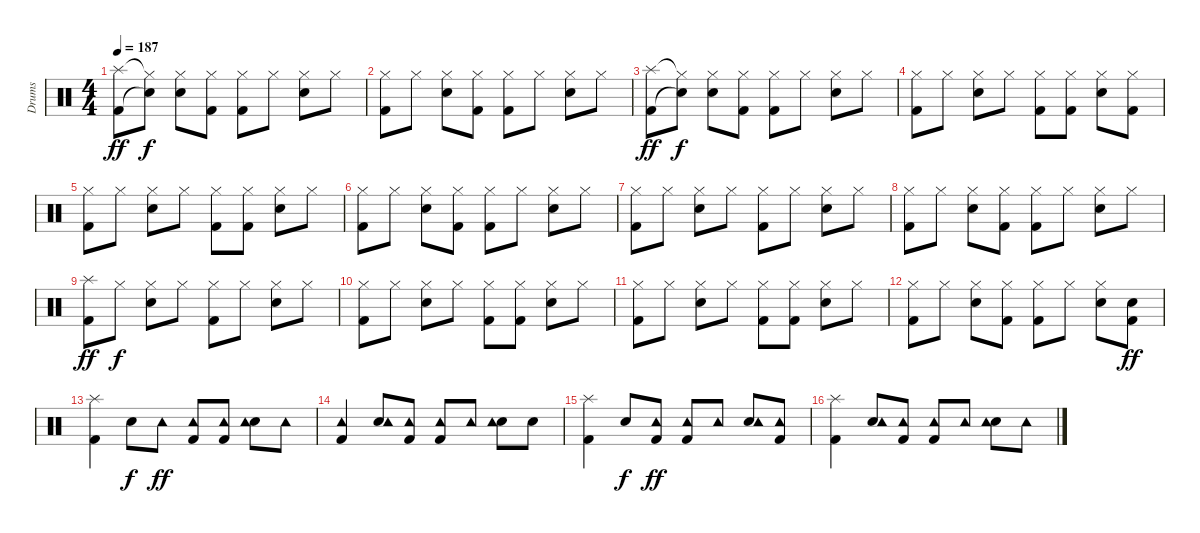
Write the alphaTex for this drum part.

\track ("Drums" "Drums") {instrument percussion}
\staff {score}
\articulation defaults
\ts (4 4)
\tempo 187
\clef neutral
\ks c
("Kick (hit) 2" "Splash (hit)").8{dy ff} ("Snare (hit)"{t} "Hi-Hat (closed)"{t}).8{dy f} ("Snare (hit) 2" "Hi-Hat (closed)").8 ("Kick (hit) 2" "Hi-Hat (closed)").8 ("Kick (hit) 2" "Hi-Hat (closed)").8 "Hi-Hat (closed)".8 ("Snare (hit) 2" "Hi-Hat (closed)").8 "Hi-Hat (closed)".8 |
("Kick (hit) 2" "Hi-Hat (closed)").8 "Hi-Hat (closed)".8 ("Snare (hit) 2" "Hi-Hat (closed)").8 ("Kick (hit) 2" "Hi-Hat (closed)").8 ("Kick (hit) 2" "Hi-Hat (closed)").8 "Hi-Hat (closed)".8 ("Snare (hit) 2" "Hi-Hat (closed)").8 "Hi-Hat (closed)".8 |
("Kick (hit) 2" "Splash (hit)").8{dy ff} ("Snare (hit)"{t} "Hi-Hat (closed)"{t}).8{dy f} ("Snare (hit) 2" "Hi-Hat (closed)").8 ("Kick (hit) 2" "Hi-Hat (closed)").8 ("Kick (hit) 2" "Hi-Hat (closed)").8 "Hi-Hat (closed)".8 ("Snare (hit) 2" "Hi-Hat (closed)").8 "Hi-Hat (closed)".8 |
("Kick (hit) 2" "Hi-Hat (closed)").8 "Hi-Hat (closed)".8 ("Snare (hit) 2" "Hi-Hat (closed)").8 "Hi-Hat (closed)".8 ("Kick (hit) 2" "Hi-Hat (closed)").8 ("Kick (hit) 2" "Hi-Hat (closed)").8 ("Snare (hit) 2" "Hi-Hat (closed)").8 ("Kick (hit) 2" "Hi-Hat (closed)").8 |
("Kick (hit) 2" "Hi-Hat (closed)").8 "Hi-Hat (closed)".8 ("Snare (hit) 2" "Hi-Hat (closed)").8 "Hi-Hat (closed)".8 ("Kick (hit) 2" "Hi-Hat (closed)").8 ("Kick (hit) 2" "Hi-Hat (closed)").8 ("Snare (hit) 2" "Hi-Hat (closed)").8 "Hi-Hat (closed)".8 |
("Kick (hit) 2" "Hi-Hat (closed)").8 "Hi-Hat (closed)".8 ("Snare (hit) 2" "Hi-Hat (closed)").8 ("Kick (hit) 2" "Hi-Hat (closed)").8 ("Kick (hit) 2" "Hi-Hat (closed)").8 "Hi-Hat (closed)".8 ("Snare (hit) 2" "Hi-Hat (closed)").8 "Hi-Hat (closed)".8 |
("Kick (hit) 2" "Hi-Hat (closed)").8 "Hi-Hat (closed)".8 ("Snare (hit) 2" "Hi-Hat (closed)").8 "Hi-Hat (closed)".8 ("Kick (hit) 2" "Hi-Hat (closed)").8 "Hi-Hat (closed)".8 ("Snare (hit) 2" "Hi-Hat (closed)").8 "Hi-Hat (closed)".8 |
("Kick (hit) 2" "Hi-Hat (closed)").8 "Hi-Hat (closed)".8 ("Snare (hit) 2" "Hi-Hat (closed)").8 ("Kick (hit) 2" "Hi-Hat (closed)").8 ("Kick (hit) 2" "Hi-Hat (closed)").8 "Hi-Hat (closed)".8 ("Snare (hit) 2" "Hi-Hat (closed)").8 "Hi-Hat (closed)".8 |
("Kick (hit) 2" "Splash (hit)").8{dy ff} "Hi-Hat (closed)".8{dy f} ("Snare (hit) 2" "Hi-Hat (closed)").8 "Hi-Hat (closed)".8 ("Kick (hit) 2" "Hi-Hat (closed)").8 "Hi-Hat (closed)".8 ("Snare (hit) 2" "Hi-Hat (closed)").8 "Hi-Hat (closed)".8 |
("Kick (hit) 2" "Hi-Hat (closed)").8 "Hi-Hat (closed)".8 ("Snare (hit) 2" "Hi-Hat (closed)").8 "Hi-Hat (closed)".8 ("Kick (hit) 2" "Hi-Hat (closed)").8 ("Kick (hit) 2" "Hi-Hat (closed)").8 ("Snare (hit) 2" "Hi-Hat (closed)").8 "Hi-Hat (closed)".8 |
("Kick (hit) 2" "Hi-Hat (closed)").8 "Hi-Hat (closed)".8 ("Snare (hit) 2" "Hi-Hat (closed)").8 "Hi-Hat (closed)".8 ("Kick (hit) 2" "Hi-Hat (closed)").8 ("Kick (hit) 2" "Hi-Hat (closed)").8 ("Snare (hit) 2" "Hi-Hat (closed)").8 "Hi-Hat (closed)".8 |
("Kick (hit) 2" "Hi-Hat (closed)").8 "Hi-Hat (closed)".8 ("Snare (hit) 2" "Hi-Hat (closed)").8 ("Kick (hit) 2" "Hi-Hat (closed)").8 ("Kick (hit) 2" "Hi-Hat (closed)").8 "Hi-Hat (closed)".8 ("Snare (hit) 2" "Hi-Hat (closed)").8 ("Kick (hit) 2" "Hand Clap (hit)").8{dy ff} |
("Kick (hit) 2" "Splash (hit)").4 "Snare (hit) 2".8{dy f} "Tambourine (hit)".8{dy ff} ("Kick (hit) 2" "Tambourine (hit)").8 ("Kick (hit) 2" "Tambourine (hit)").8 ("Snare (hit) 2" "Tambourine (hit)").8 "Tambourine (hit)".8 |
("Kick (hit) 2" "Tambourine (hit)").4 ("Snare (hit) 2" "Tambourine (hit)").8 ("Kick (hit) 2" "Tambourine (hit)").8 ("Kick (hit) 2" "Tambourine (hit)").8 "Tambourine (hit)".8 ("Snare (hit) 2" "Tambourine (hit)").8 "Hand Clap (hit)".8 |
("Kick (hit) 2" "Splash (hit)").4 "Snare (hit) 2".8{dy f} ("Kick (hit) 2" "Tambourine (hit)").8{dy ff} ("Kick (hit) 2" "Tambourine (hit)").8 "Tambourine (hit)".8 ("Snare (hit) 2" "Tambourine (hit)").8 ("Kick (hit) 2" "Tambourine (hit)").8 |
("Kick (hit) 2" "Splash (hit)").4 ("Snare (hit) 2" "Tambourine (hit)").8 ("Kick (hit) 2" "Tambourine (hit)").8 ("Kick (hit) 2" "Tambourine (hit)").8 "Tambourine (hit)".8 ("Snare (hit) 2" "Tambourine (hit)").8 "Tambourine (hit)".8
